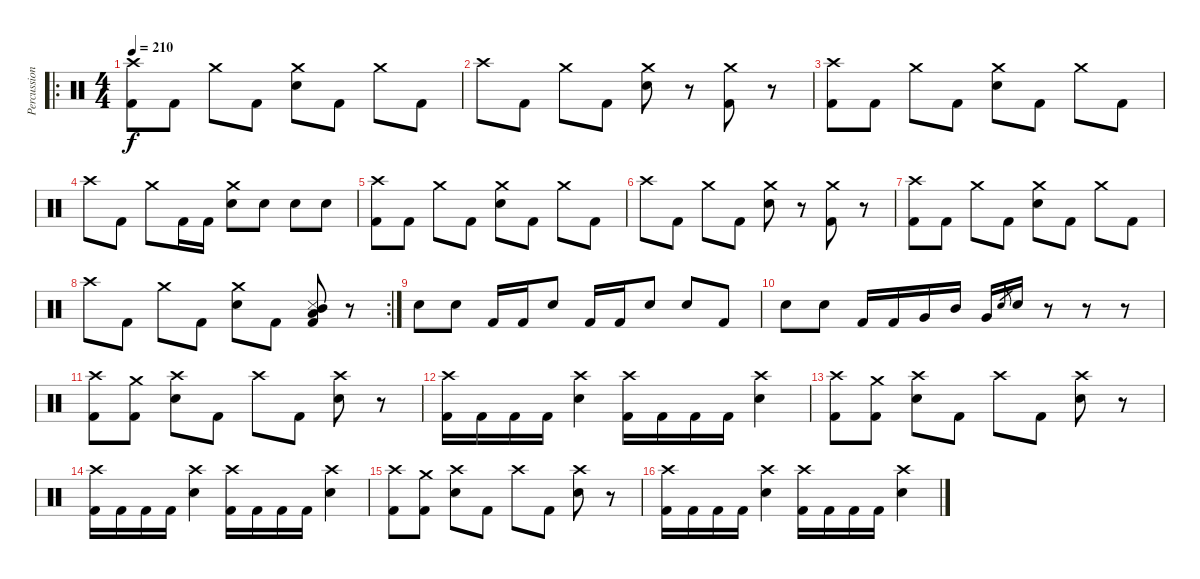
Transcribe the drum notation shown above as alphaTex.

\track ("Percussions" "Percussion") {instrument percussion}
\staff {score}
\articulation defaults
\ro
\ts (4 4)
\tempo 210
\clef neutral
\ks c
("Kick (hit) 2" "Crash high (hit)").8{dy f} "Kick (hit) 2".8 "Crash medium (hit)".8 "Kick (hit) 2".8 ("Electric Snare (hit)" "Crash medium (hit)").8 "Kick (hit) 2".8 "Crash medium (hit)".8 "Kick (hit) 2".8 |
"Crash high (hit)".8 "Kick (hit) 2".8 "Crash medium (hit)".8 "Kick (hit) 2".8 ("Electric Snare (hit)" "Crash medium (hit)").8 r.8 ("Kick (hit) 2" "Crash medium (hit)").8 r.8 |
("Kick (hit) 2" "Crash high (hit)").8 "Kick (hit) 2".8 "Crash medium (hit)".8 "Kick (hit) 2".8 ("Electric Snare (hit)" "Crash medium (hit)").8 "Kick (hit) 2".8 "Crash medium (hit)".8 "Kick (hit) 2".8 |
"Crash high (hit)".8 "Kick (hit) 2".8 "Crash medium (hit)".8 "Kick (hit) 2".16 "Kick (hit) 2".16 ("Electric Snare (hit)" "Crash medium (hit)").8 "Electric Snare (hit)".8 "Electric Snare (hit)".8 "Electric Snare (hit)".8 |
("Kick (hit) 2" "Crash high (hit)").8 "Kick (hit) 2".8 "Crash medium (hit)".8 "Kick (hit) 2".8 ("Electric Snare (hit)" "Crash medium (hit)").8 "Kick (hit) 2".8 "Crash medium (hit)".8 "Kick (hit) 2".8 |
"Crash high (hit)".8 "Kick (hit) 2".8 "Crash medium (hit)".8 "Kick (hit) 2".8 ("Electric Snare (hit)" "Crash medium (hit)").8 r.8 ("Kick (hit) 2" "Crash medium (hit)").8 r.8 |
("Kick (hit) 2" "Crash high (hit)").8 "Kick (hit) 2".8 "Crash medium (hit)".8 "Kick (hit) 2".8 ("Electric Snare (hit)" "Crash medium (hit)").8 "Kick (hit) 2".8 "Crash medium (hit)".8 "Kick (hit) 2".8 |
\rc 2 "Crash high (hit)".8 "Kick (hit) 2".8 "Crash medium (hit)".8 "Kick (hit) 2".8
("Electric Snare (hit)" "Crash medium (hit)").8 "Kick (hit) 2".8 ("Kick (hit) 2" "Metronome (hit)" "Mid Tom (hit)" "Low Tom (hit)").8 r.8 |
"Electric Snare (hit)".8 "Electric Snare (hit)".8 "Kick (hit) 2".16 "Kick (hit) 2".16 "Electric Snare (hit)".8 "Kick (hit) 2".16 "Kick (hit) 2".16 "Electric Snare (hit)".8 "Electric Snare (hit)".8 "Kick (hit) 2".8 |
"Electric Snare (hit)".8 "Electric Snare (hit)".8 "Kick (hit) 2".16 "Kick (hit) 2".16 "Very Low Tom (hit)".16 "Mid Tom (hit)".16 "Very Low Tom (hit)".16 "Electric Snare (hit)".8{gr} "Electric Snare (hit)".16 r.8 r.8 r.8 |
("Kick (hit) 2" "Crash high (hit)").8 ("Kick (hit) 2" "Crash medium (hit)").8 ("Electric Snare (hit)" "Crash high (hit)").8 "Kick (hit) 2".8 "Crash high (hit)".8 "Kick (hit) 2".8 ("Electric Snare (hit)" "Crash high (hit)").8 r.8 |
("Kick (hit) 2" "Crash high (hit)").16 "Kick (hit) 2".16 "Kick (hit) 2".16 "Kick (hit) 2".16 ("Electric Snare (hit)" "Crash high (hit)").4 ("Kick (hit) 2" "Crash high (hit)").16 "Kick (hit) 2".16 "Kick (hit) 2".16 "Kick (hit) 2".16 ("Electric Snare (hit)" "Crash high (hit)").4 |
("Kick (hit) 2" "Crash high (hit)").8 ("Kick (hit) 2" "Crash medium (hit)").8 ("Electric Snare (hit)" "Crash high (hit)").8 "Kick (hit) 2".8 "Crash high (hit)".8 "Kick (hit) 2".8 ("Electric Snare (hit)" "Crash high (hit)").8 r.8 |
("Kick (hit) 2" "Crash high (hit)").16 "Kick (hit) 2".16 "Kick (hit) 2".16 "Kick (hit) 2".16 ("Electric Snare (hit)" "Crash high (hit)").4 ("Kick (hit) 2" "Crash high (hit)").16 "Kick (hit) 2".16 "Kick (hit) 2".16 "Kick (hit) 2".16 ("Electric Snare (hit)" "Crash high (hit)").4 |
("Kick (hit) 2" "Crash high (hit)").8 ("Kick (hit) 2" "Crash medium (hit)").8 ("Electric Snare (hit)" "Crash high (hit)").8 "Kick (hit) 2".8 "Crash high (hit)".8 "Kick (hit) 2".8 ("Electric Snare (hit)" "Crash high (hit)").8 r.8 |
("Kick (hit) 2" "Crash high (hit)").16 "Kick (hit) 2".16 "Kick (hit) 2".16 "Kick (hit) 2".16 ("Electric Snare (hit)" "Crash high (hit)").4 ("Kick (hit) 2" "Crash high (hit)").16 "Kick (hit) 2".16 "Kick (hit) 2".16 "Kick (hit) 2".16 ("Electric Snare (hit)" "Crash high (hit)").4
